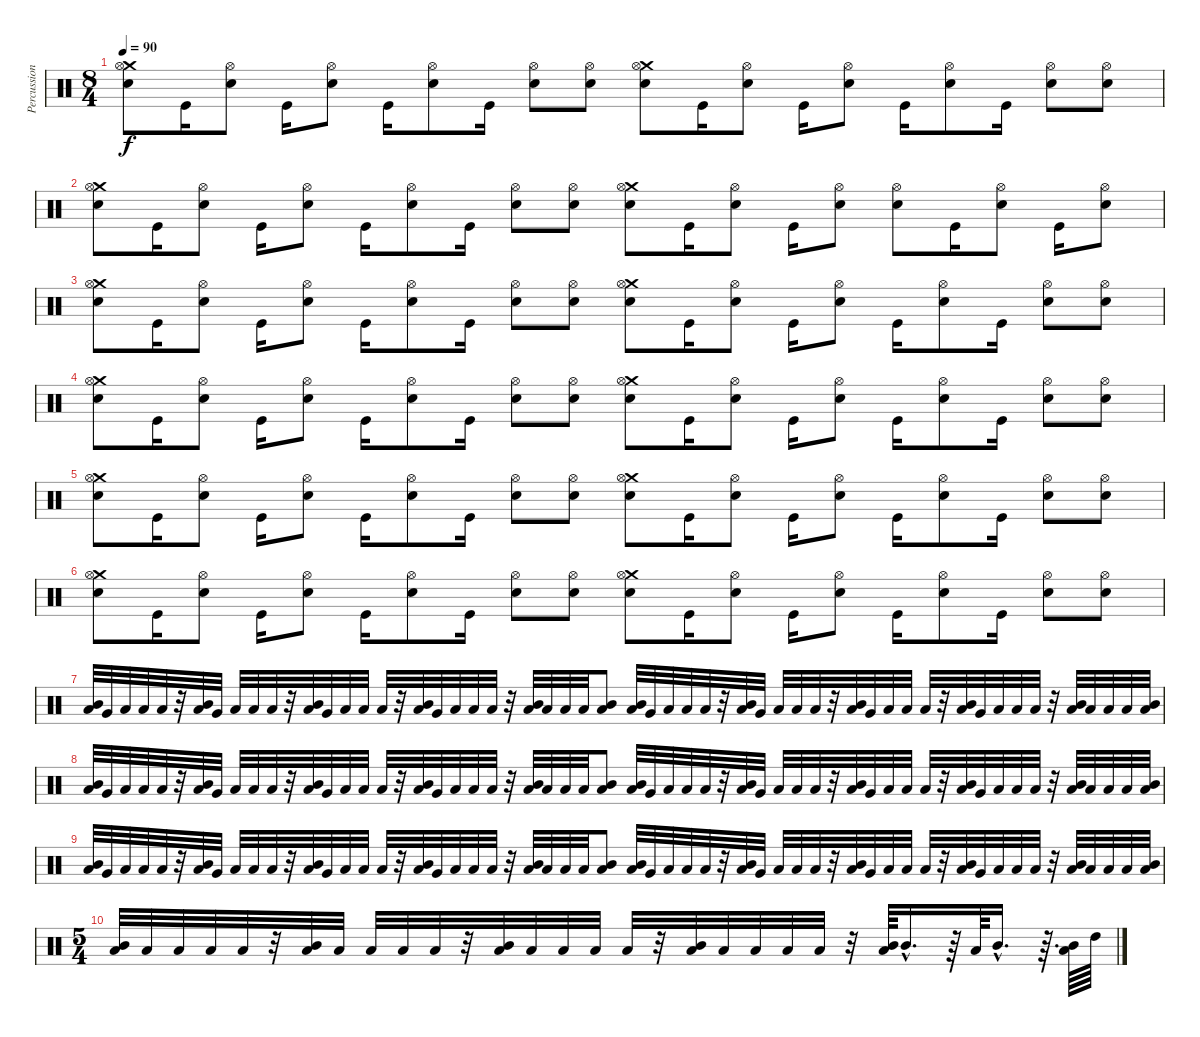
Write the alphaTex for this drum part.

\track ("Percussion" "Percussion") {instrument percussion}
\staff {score}
\articulation defaults
\ts (8 4)
\tempo 90
\clef neutral
\ks c
("Crash medium (hit)" "Hi-Hat (open)" "Snare (hit) 2").8{dy f} "Kick (hit)".16 ("Hi-Hat (open)" "Snare (hit) 2").8 "Kick (hit)".16 ("Hi-Hat (open)" "Snare (hit) 2").8 "Kick (hit)".16 ("Hi-Hat (open)" "Snare (hit) 2").8 "Kick (hit)".16 ("Hi-Hat (open)" "Snare (hit) 2").8 ("Hi-Hat (open)" "Snare (hit) 2").8 ("Crash medium (hit)" "Hi-Hat (open)" "Snare (hit) 2").8 "Kick (hit)".16 ("Hi-Hat (open)" "Snare (hit) 2").8 "Kick (hit)".16 ("Hi-Hat (open)" "Snare (hit) 2").8 "Kick (hit)".16 ("Hi-Hat (open)" "Snare (hit) 2").8 "Kick (hit)".16 ("Hi-Hat (open)" "Snare (hit) 2").8 ("Hi-Hat (open)" "Snare (hit) 2").8 |
("Crash medium (hit)" "Hi-Hat (open)" "Snare (hit) 2").8 "Kick (hit)".16 ("Hi-Hat (open)" "Snare (hit) 2").8 "Kick (hit)".16 ("Hi-Hat (open)" "Snare (hit) 2").8 "Kick (hit)".16 ("Hi-Hat (open)" "Snare (hit) 2").8 "Kick (hit)".16 ("Hi-Hat (open)" "Snare (hit) 2").8 ("Hi-Hat (open)" "Snare (hit) 2").8 ("Crash medium (hit)" "Hi-Hat (open)" "Snare (hit) 2").8 "Kick (hit)".16 ("Hi-Hat (open)" "Snare (hit) 2").8 "Kick (hit)".16 ("Hi-Hat (open)" "Snare (hit) 2").8 ("Hi-Hat (open)" "Snare (hit) 2").8 "Kick (hit)".16 ("Hi-Hat (open)" "Snare (hit) 2").8 "Kick (hit)".16 ("Hi-Hat (open)" "Snare (hit) 2").8 |
("Crash medium (hit)" "Hi-Hat (open)" "Snare (hit) 2").8 "Kick (hit)".16 ("Hi-Hat (open)" "Snare (hit) 2").8 "Kick (hit)".16 ("Hi-Hat (open)" "Snare (hit) 2").8 "Kick (hit)".16 ("Hi-Hat (open)" "Snare (hit) 2").8 "Kick (hit)".16 ("Hi-Hat (open)" "Snare (hit) 2").8 ("Hi-Hat (open)" "Snare (hit) 2").8 ("Crash medium (hit)" "Hi-Hat (open)" "Snare (hit) 2").8 "Kick (hit)".16 ("Hi-Hat (open)" "Snare (hit) 2").8 "Kick (hit)".16 ("Hi-Hat (open)" "Snare (hit) 2").8 "Kick (hit)".16 ("Hi-Hat (open)" "Snare (hit) 2").8 "Kick (hit)".16 ("Hi-Hat (open)" "Snare (hit) 2").8 ("Hi-Hat (open)" "Snare (hit) 2").8 |
("Crash medium (hit)" "Hi-Hat (open)" "Snare (hit) 2").8 "Kick (hit)".16 ("Hi-Hat (open)" "Snare (hit) 2").8 "Kick (hit)".16 ("Hi-Hat (open)" "Snare (hit) 2").8 "Kick (hit)".16 ("Hi-Hat (open)" "Snare (hit) 2").8 "Kick (hit)".16 ("Hi-Hat (open)" "Snare (hit) 2").8 ("Hi-Hat (open)" "Snare (hit) 2").8 ("Crash medium (hit)" "Hi-Hat (open)" "Snare (hit) 2").8 "Kick (hit)".16 ("Hi-Hat (open)" "Snare (hit) 2").8 "Kick (hit)".16 ("Hi-Hat (open)" "Snare (hit) 2").8 "Kick (hit)".16 ("Hi-Hat (open)" "Snare (hit) 2").8 "Kick (hit)".16 ("Hi-Hat (open)" "Snare (hit) 2").8 ("Hi-Hat (open)" "Snare (hit) 2").8 |
("Crash medium (hit)" "Hi-Hat (open)" "Snare (hit) 2").8 "Kick (hit)".16 ("Hi-Hat (open)" "Snare (hit) 2").8 "Kick (hit)".16 ("Hi-Hat (open)" "Snare (hit) 2").8 "Kick (hit)".16 ("Hi-Hat (open)" "Snare (hit) 2").8 "Kick (hit)".16 ("Hi-Hat (open)" "Snare (hit) 2").8 ("Hi-Hat (open)" "Snare (hit) 2").8 ("Crash medium (hit)" "Hi-Hat (open)" "Snare (hit) 2").8 "Kick (hit)".16 ("Hi-Hat (open)" "Snare (hit) 2").8 "Kick (hit)".16 ("Hi-Hat (open)" "Snare (hit) 2").8 "Kick (hit)".16 ("Hi-Hat (open)" "Snare (hit) 2").8 "Kick (hit)".16 ("Hi-Hat (open)" "Snare (hit) 2").8 ("Hi-Hat (open)" "Snare (hit) 2").8 |
("Crash medium (hit)" "Hi-Hat (open)" "Snare (hit) 2").8 "Kick (hit)".16 ("Hi-Hat (open)" "Snare (hit) 2").8 "Kick (hit)".16 ("Hi-Hat (open)" "Snare (hit) 2").8 "Kick (hit)".16 ("Hi-Hat (open)" "Snare (hit) 2").8 "Kick (hit)".16 ("Hi-Hat (open)" "Snare (hit) 2").8 ("Hi-Hat (open)" "Snare (hit) 2").8 ("Crash medium (hit)" "Hi-Hat (open)" "Snare (hit) 2").8 "Kick (hit)".16 ("Hi-Hat (open)" "Snare (hit) 2").8 "Kick (hit)".16 ("Hi-Hat (open)" "Snare (hit) 2").8 "Kick (hit)".16 ("Hi-Hat (open)" "Snare (hit) 2").8 "Kick (hit)".16 ("Hi-Hat (open)" "Snare (hit) 2").8 ("Hi-Hat (open)" "Snare (hit) 2").8 |
("Mid Tom (hit)" "Low Tom (hit)").32 "Very Low Tom (hit)".32 "Low Tom (hit)".32 "Low Tom (hit)".32 "Low Tom (hit)".32 r.32 ("Mid Tom (hit)" "Low Tom (hit)").32 "Very Low Tom (hit)".32 "Low Tom (hit)".32 "Low Tom (hit)".32 "Low Tom (hit)".32 r.32 ("Mid Tom (hit)" "Low Tom (hit)").32 "Very Low Tom (hit)".32 "Low Tom (hit)".32 "Low Tom (hit)".32 "Low Tom (hit)".32 r.32 ("Mid Tom (hit)" "Low Tom (hit)").32 "Very Low Tom (hit)".32 "Low Tom (hit)".32 "Low Tom (hit)".32 "Low Tom (hit)".32 r.32 ("Mid Tom (hit)" "Low Tom (hit)").32 "Low Tom (hit)".32 "Low Tom (hit)".32 "Low Tom (hit)".32 ("Mid Tom (hit)" "Low Tom (hit)").8 ("Mid Tom (hit)" "Low Tom (hit)").32 "Very Low Tom (hit)".32 "Low Tom (hit)".32 "Low Tom (hit)".32 "Low Tom (hit)".32 r.32 ("Mid Tom (hit)" "Low Tom (hit)").32 "Very Low Tom (hit)".32 "Low Tom (hit)".32 "Low Tom (hit)".32 "Low Tom (hit)".32 r.32 ("Mid Tom (hit)" "Low Tom (hit)").32 "Very Low Tom (hit)".32 "Low Tom (hit)".32 "Low Tom (hit)".32 "Low Tom (hit)".32 r.32 ("Mid Tom (hit)" "Low Tom (hit)").32 "Very Low Tom (hit)".32 "Low Tom (hit)".32 "Low Tom (hit)".32 "Low Tom (hit)".32 r.32 ("Mid Tom (hit)" "Low Tom (hit)").32 "Low Tom (hit)".32 "Low Tom (hit)".32 "Low Tom (hit)".32 ("Mid Tom (hit)" "Low Tom (hit)").32 |
("Mid Tom (hit)" "Low Tom (hit)").32 "Very Low Tom (hit)".32 "Low Tom (hit)".32 "Low Tom (hit)".32 "Low Tom (hit)".32 r.32 ("Mid Tom (hit)" "Low Tom (hit)").32 "Very Low Tom (hit)".32 "Low Tom (hit)".32 "Low Tom (hit)".32 "Low Tom (hit)".32 r.32 ("Mid Tom (hit)" "Low Tom (hit)").32 "Very Low Tom (hit)".32 "Low Tom (hit)".32 "Low Tom (hit)".32 "Low Tom (hit)".32 r.32 ("Mid Tom (hit)" "Low Tom (hit)").32 "Very Low Tom (hit)".32 "Low Tom (hit)".32 "Low Tom (hit)".32 "Low Tom (hit)".32 r.32 ("Mid Tom (hit)" "Low Tom (hit)").32 "Low Tom (hit)".32 "Low Tom (hit)".32 "Low Tom (hit)".32 ("Mid Tom (hit)" "Low Tom (hit)").8 ("Mid Tom (hit)" "Low Tom (hit)").32 "Very Low Tom (hit)".32 "Low Tom (hit)".32 "Low Tom (hit)".32 "Low Tom (hit)".32 r.32 ("Mid Tom (hit)" "Low Tom (hit)").32 "Very Low Tom (hit)".32 "Low Tom (hit)".32 "Low Tom (hit)".32 "Low Tom (hit)".32 r.32 ("Mid Tom (hit)" "Low Tom (hit)").32 "Very Low Tom (hit)".32 "Low Tom (hit)".32 "Low Tom (hit)".32 "Low Tom (hit)".32 r.32 ("Mid Tom (hit)" "Low Tom (hit)").32 "Very Low Tom (hit)".32 "Low Tom (hit)".32 "Low Tom (hit)".32 "Low Tom (hit)".32 r.32 ("Mid Tom (hit)" "Low Tom (hit)").32 "Low Tom (hit)".32 "Low Tom (hit)".32 "Low Tom (hit)".32 ("Mid Tom (hit)" "Low Tom (hit)").32 |
("Mid Tom (hit)" "Low Tom (hit)").32 "Very Low Tom (hit)".32 "Low Tom (hit)".32 "Low Tom (hit)".32 "Low Tom (hit)".32 r.32 ("Mid Tom (hit)" "Low Tom (hit)").32 "Very Low Tom (hit)".32 "Low Tom (hit)".32 "Low Tom (hit)".32 "Low Tom (hit)".32 r.32 ("Mid Tom (hit)" "Low Tom (hit)").32 "Very Low Tom (hit)".32 "Low Tom (hit)".32 "Low Tom (hit)".32 "Low Tom (hit)".32 r.32 ("Mid Tom (hit)" "Low Tom (hit)").32 "Very Low Tom (hit)".32 "Low Tom (hit)".32 "Low Tom (hit)".32 "Low Tom (hit)".32 r.32 ("Mid Tom (hit)" "Low Tom (hit)").32 "Low Tom (hit)".32 "Low Tom (hit)".32 "Low Tom (hit)".32 ("Mid Tom (hit)" "Low Tom (hit)").8 ("Mid Tom (hit)" "Low Tom (hit)").32 "Very Low Tom (hit)".32 "Low Tom (hit)".32 "Low Tom (hit)".32 "Low Tom (hit)".32 r.32 ("Mid Tom (hit)" "Low Tom (hit)").32 "Very Low Tom (hit)".32 "Low Tom (hit)".32 "Low Tom (hit)".32 "Low Tom (hit)".32 r.32 ("Mid Tom (hit)" "Low Tom (hit)").32 "Very Low Tom (hit)".32 "Low Tom (hit)".32 "Low Tom (hit)".32 "Low Tom (hit)".32 r.32 ("Mid Tom (hit)" "Low Tom (hit)").32 "Very Low Tom (hit)".32 "Low Tom (hit)".32 "Low Tom (hit)".32 "Low Tom (hit)".32 r.32 ("Mid Tom (hit)" "Low Tom (hit)").32 "Low Tom (hit)".32 "Low Tom (hit)".32 "Low Tom (hit)".32 ("Mid Tom (hit)" "Low Tom (hit)").32 |
\ts (5 4)
("Mid Tom (hit)" "Low Tom (hit)").32 "Low Tom (hit)".32 "Low Tom (hit)".32 "Low Tom (hit)".32 "Low Tom (hit)".32 r.32 ("Mid Tom (hit)" "Low Tom (hit)").32 "Low Tom (hit)".32 "Low Tom (hit)".32 "Low Tom (hit)".32 "Low Tom (hit)".32 r.32 ("Mid Tom (hit)" "Low Tom (hit)").32 "Low Tom (hit)".32 "Low Tom (hit)".32 "Low Tom (hit)".32 "Low Tom (hit)".32 r.32 ("Mid Tom (hit)" "Low Tom (hit)").32 "Low Tom (hit)".32 "Low Tom (hit)".32 "Low Tom (hit)".32 "Low Tom (hit)".32 r.32 ("Mid Tom (hit)" "Low Tom (hit)").64 "Mid Tom (hit)"{hac}.16{d} r.64 "Low Tom (hit)".64 "Mid Tom (hit)"{hac}.16{d} r.64{d} ("Low Tom (hit)" "Mid Tom (hit)").64 "High Tom (hit)".64
